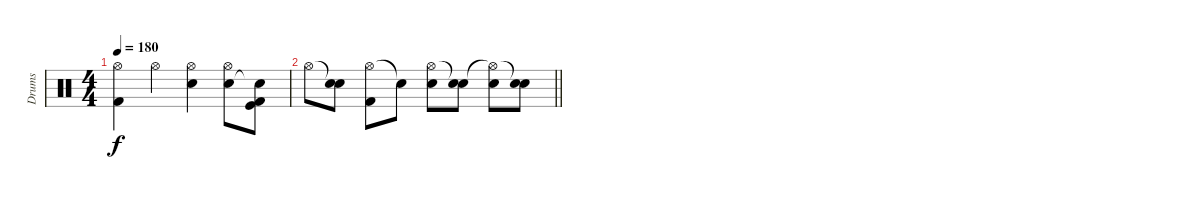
\track ("Drums" "Drums") {instrument percussion}
\staff {score}
\articulation defaults
\ts (4 4)
\tempo 180
\clef neutral
\ks c
("Hi-Hat (open)" "Kick (hit) 2").4{dy f} "Hi-Hat (open)".4 ("Hi-Hat (open)" "Snare (hit) 2").4 ("Hi-Hat (open)" "Snare (hit) 2").8 ("Kick (hit)" "Snare (hit)"{t} "Kick (hit) 2").8 |
\barLineRight lightlight "Hi-Hat (open)".8
("Snare (hit)"{t} "Snare (hit) 2").8 ("Hi-Hat (open)" "Kick (hit) 2").8 "Snare (hit)"{t}.8 ("Hi-Hat (open)" "Snare (hit) 2").8 ("Snare (hit)"{t} "Snare (hit) 2").8 ("Hi-Hat (open)"{t} "Snare (hit) 2").8 ("Snare (hit)"{t} "Snare (hit) 2").8
